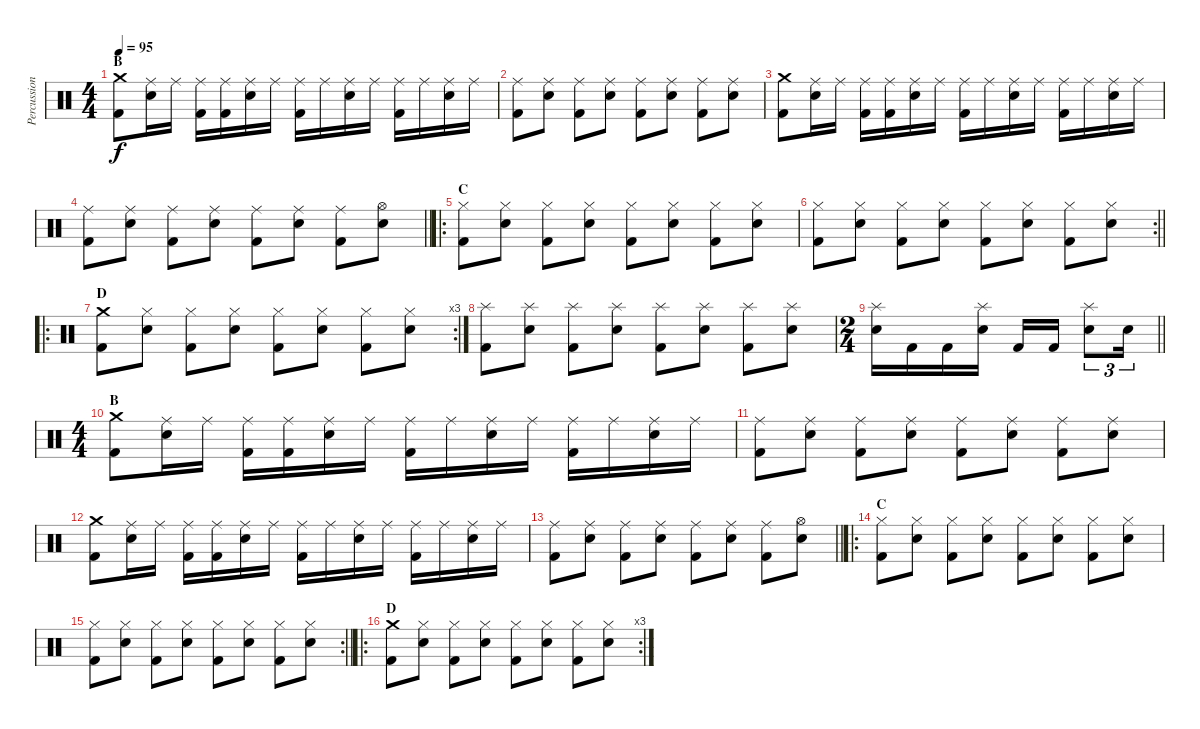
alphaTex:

\track ("Percussion" "Percussion") {instrument percussion}
\staff {score}
\articulation defaults
\ts (4 4)
\section ("" "B")
\tempo 95
\clef neutral
\ks c
("Crash medium (hit)" "Kick (hit) 2").8{dy f} ("Ride (middle)" "Snare (hit) 2").16 "Ride (middle)".16 ("Ride (middle)" "Kick (hit) 2").16 ("Ride (middle)" "Kick (hit) 2").16 ("Ride (middle)" "Snare (hit) 2").16 "Ride (middle)".16 ("Ride (middle)" "Kick (hit) 2").16 "Ride (middle)".16 ("Ride (middle)" "Snare (hit) 2").16 "Ride (middle)".16 ("Ride (middle)" "Kick (hit) 2").16 "Ride (middle)".16 ("Ride (middle)" "Snare (hit) 2").16 "Ride (middle)".16 |
("Ride (middle)" "Kick (hit) 2").8 ("Ride (middle)" "Snare (hit) 2").8 ("Ride (middle)" "Kick (hit) 2").8 ("Ride (middle)" "Snare (hit) 2").8 ("Ride (middle)" "Kick (hit) 2").8 ("Ride (middle)" "Snare (hit) 2").8 ("Ride (middle)" "Kick (hit) 2").8 ("Ride (middle)" "Snare (hit) 2").8 |
("Crash medium (hit)" "Kick (hit) 2").8 ("Ride (middle)" "Snare (hit) 2").16 "Ride (middle)".16 ("Ride (middle)" "Kick (hit) 2").16 ("Ride (middle)" "Kick (hit) 2").16 ("Ride (middle)" "Snare (hit) 2").16 "Ride (middle)".16 ("Ride (middle)" "Kick (hit) 2").16 "Ride (middle)".16 ("Ride (middle)" "Snare (hit) 2").16 "Ride (middle)".16 ("Ride (middle)" "Kick (hit) 2").16 "Ride (middle)".16 ("Ride (middle)" "Snare (hit) 2").16 "Ride (middle)".16 |
\barLineRight lightlight
("Ride (middle)" "Kick (hit) 2").8 ("Ride (middle)" "Snare (hit) 2").8 ("Ride (middle)" "Kick (hit) 2").8 ("Ride (middle)" "Snare (hit) 2").8 ("Ride (middle)" "Kick (hit) 2").8 ("Ride (middle)" "Snare (hit) 2").8 ("Ride (middle)" "Kick (hit) 2").8 ("Hi-Hat (open)" "Snare (hit) 2").8 |
\ro
\section ("" "C")
("Hi-Hat (closed)" "Kick (hit) 2").8 ("Hi-Hat (closed)" "Snare (hit) 2").8 ("Hi-Hat (closed)" "Kick (hit) 2").8 ("Hi-Hat (closed)" "Snare (hit) 2").8 ("Hi-Hat (closed)" "Kick (hit) 2").8 ("Hi-Hat (closed)" "Snare (hit) 2").8 ("Hi-Hat (closed)" "Kick (hit) 2").8 ("Hi-Hat (closed)" "Snare (hit) 2").8 |
\rc 2
\barLineRight lightlight
("Hi-Hat (closed)" "Kick (hit) 2").8 ("Hi-Hat (closed)" "Snare (hit) 2").8 ("Hi-Hat (closed)" "Kick (hit) 2").8 ("Hi-Hat (closed)" "Snare (hit) 2").8 ("Hi-Hat (closed)" "Kick (hit) 2").8 ("Hi-Hat (closed)" "Snare (hit) 2").8 ("Hi-Hat (closed)" "Kick (hit) 2").8 ("Hi-Hat (closed)" "Snare (hit) 2").8 |
\ro
\rc 3
\section ("" "D")
("Crash medium (hit)" "Kick (hit) 2").8 ("Hi-Hat (closed)" "Snare (hit) 2").8 ("Hi-Hat (closed)" "Kick (hit) 2").8 ("Hi-Hat (closed)" "Snare (hit) 2").8 ("Hi-Hat (closed)" "Kick (hit) 2").8 ("Hi-Hat (closed)" "Snare (hit) 2").8 ("Hi-Hat (closed)" "Kick (hit) 2").8 ("Hi-Hat (closed)" "Snare (hit) 2").8 |
("Splash (hit)" "Kick (hit) 2").8 ("Splash (hit)" "Snare (hit) 2").8 ("Splash (hit)" "Kick (hit) 2").8 ("Splash (hit)" "Snare (hit) 2").8 ("Splash (hit)" "Kick (hit) 2").8 ("Splash (hit)" "Snare (hit) 2").8 ("Splash (hit)" "Kick (hit) 2").8 ("Splash (hit)" "Snare (hit) 2").8 |
\ts (2 4)
\barLineRight lightlight
("Splash (hit)" "Snare (hit) 2").16 "Kick (hit) 2".16 "Kick (hit) 2".16 ("Splash (hit)" "Snare (hit) 2").16 "Kick (hit) 2".16 "Kick (hit) 2".16 ("Splash (hit)" "Snare (hit) 2").8{tu (3 2)} "Snare (hit) 2".16{tu (3 2)} |
\ts (4 4)
\section ("" "B")
("Crash medium (hit)" "Kick (hit) 2").8 ("Ride (middle)" "Snare (hit) 2").16 "Ride (middle)".16 ("Ride (middle)" "Kick (hit) 2").16 ("Ride (middle)" "Kick (hit) 2").16 ("Ride (middle)" "Snare (hit) 2").16 "Ride (middle)".16 ("Ride (middle)" "Kick (hit) 2").16 "Ride (middle)".16 ("Ride (middle)" "Snare (hit) 2").16 "Ride (middle)".16 ("Ride (middle)" "Kick (hit) 2").16 "Ride (middle)".16 ("Ride (middle)" "Snare (hit) 2").16 "Ride (middle)".16 |
("Ride (middle)" "Kick (hit) 2").8 ("Ride (middle)" "Snare (hit) 2").8 ("Ride (middle)" "Kick (hit) 2").8 ("Ride (middle)" "Snare (hit) 2").8 ("Ride (middle)" "Kick (hit) 2").8 ("Ride (middle)" "Snare (hit) 2").8 ("Ride (middle)" "Kick (hit) 2").8 ("Ride (middle)" "Snare (hit) 2").8 |
("Crash medium (hit)" "Kick (hit) 2").8 ("Ride (middle)" "Snare (hit) 2").16 "Ride (middle)".16 ("Ride (middle)" "Kick (hit) 2").16 ("Ride (middle)" "Kick (hit) 2").16 ("Ride (middle)" "Snare (hit) 2").16 "Ride (middle)".16 ("Ride (middle)" "Kick (hit) 2").16 "Ride (middle)".16 ("Ride (middle)" "Snare (hit) 2").16 "Ride (middle)".16 ("Ride (middle)" "Kick (hit) 2").16 "Ride (middle)".16 ("Ride (middle)" "Snare (hit) 2").16 "Ride (middle)".16 |
\barLineRight lightlight
("Ride (middle)" "Kick (hit) 2").8 ("Ride (middle)" "Snare (hit) 2").8 ("Ride (middle)" "Kick (hit) 2").8 ("Ride (middle)" "Snare (hit) 2").8 ("Ride (middle)" "Kick (hit) 2").8 ("Ride (middle)" "Snare (hit) 2").8 ("Ride (middle)" "Kick (hit) 2").8 ("Hi-Hat (open)" "Snare (hit) 2").8 |
\ro
\section ("" "C")
("Hi-Hat (closed)" "Kick (hit) 2").8 ("Hi-Hat (closed)" "Snare (hit) 2").8 ("Hi-Hat (closed)" "Kick (hit) 2").8 ("Hi-Hat (closed)" "Snare (hit) 2").8 ("Hi-Hat (closed)" "Kick (hit) 2").8 ("Hi-Hat (closed)" "Snare (hit) 2").8 ("Hi-Hat (closed)" "Kick (hit) 2").8 ("Hi-Hat (closed)" "Snare (hit) 2").8 |
\rc 2
\barLineRight lightlight
("Hi-Hat (closed)" "Kick (hit) 2").8 ("Hi-Hat (closed)" "Snare (hit) 2").8 ("Hi-Hat (closed)" "Kick (hit) 2").8 ("Hi-Hat (closed)" "Snare (hit) 2").8 ("Hi-Hat (closed)" "Kick (hit) 2").8 ("Hi-Hat (closed)" "Snare (hit) 2").8 ("Hi-Hat (closed)" "Kick (hit) 2").8 ("Hi-Hat (closed)" "Snare (hit) 2").8 |
\ro
\rc 3
\section ("" "D")
("Crash medium (hit)" "Kick (hit) 2").8 ("Hi-Hat (closed)" "Snare (hit) 2").8 ("Hi-Hat (closed)" "Kick (hit) 2").8 ("Hi-Hat (closed)" "Snare (hit) 2").8 ("Hi-Hat (closed)" "Kick (hit) 2").8 ("Hi-Hat (closed)" "Snare (hit) 2").8 ("Hi-Hat (closed)" "Kick (hit) 2").8 ("Hi-Hat (closed)" "Snare (hit) 2").8
